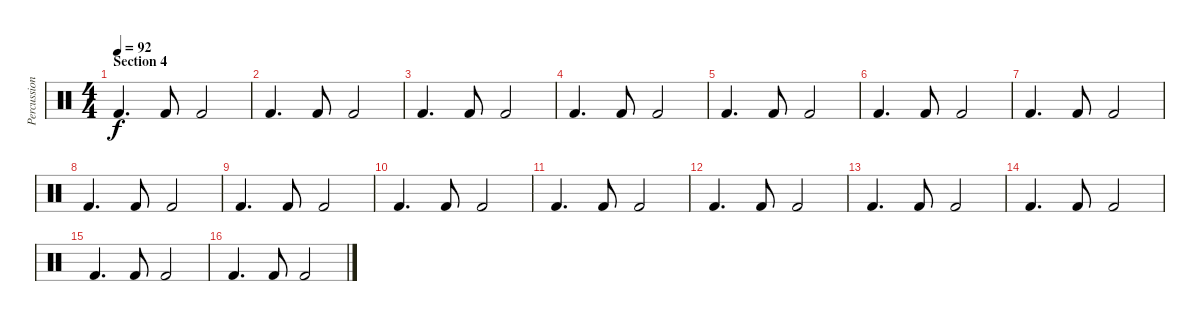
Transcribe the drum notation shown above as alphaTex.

\track ("Percussion" "Percussion") {instrument percussion}
\staff {score}
\articulation defaults
\ts (4 4)
\section ("" "Section 4")
\tempo 92
\clef neutral
\ks c "Kick (hit) 2".4{d dy f volume 11} "Kick (hit) 2".8 "Kick (hit) 2".2
|
"Kick (hit) 2".4{d} "Kick (hit) 2".8 "Kick (hit) 2".2 |
"Kick (hit) 2".4{d} "Kick (hit) 2".8 "Kick (hit) 2".2 |
"Kick (hit) 2".4{d} "Kick (hit) 2".8 "Kick (hit) 2".2 |
"Kick (hit) 2".4{d volume 9} "Kick (hit) 2".8 "Kick (hit) 2".2 |
"Kick (hit) 2".4{d} "Kick (hit) 2".8 "Kick (hit) 2".2 |
"Kick (hit) 2".4{d} "Kick (hit) 2".8 "Kick (hit) 2".2 |
"Kick (hit) 2".4{d} "Kick (hit) 2".8 "Kick (hit) 2".2 |
"Kick (hit) 2".4{d volume 8} "Kick (hit) 2".8 "Kick (hit) 2".2 |
"Kick (hit) 2".4{d} "Kick (hit) 2".8 "Kick (hit) 2".2 |
"Kick (hit) 2".4{d} "Kick (hit) 2".8 "Kick (hit) 2".2 |
"Kick (hit) 2".4{d} "Kick (hit) 2".8 "Kick (hit) 2".2 |
"Kick (hit) 2".4{d volume 7} "Kick (hit) 2".8 "Kick (hit) 2".2 |
"Kick (hit) 2".4{d} "Kick (hit) 2".8 "Kick (hit) 2".2 |
"Kick (hit) 2".4{d} "Kick (hit) 2".8 "Kick (hit) 2".2 |
"Kick (hit) 2".4{d} "Kick (hit) 2".8 "Kick (hit) 2".2
